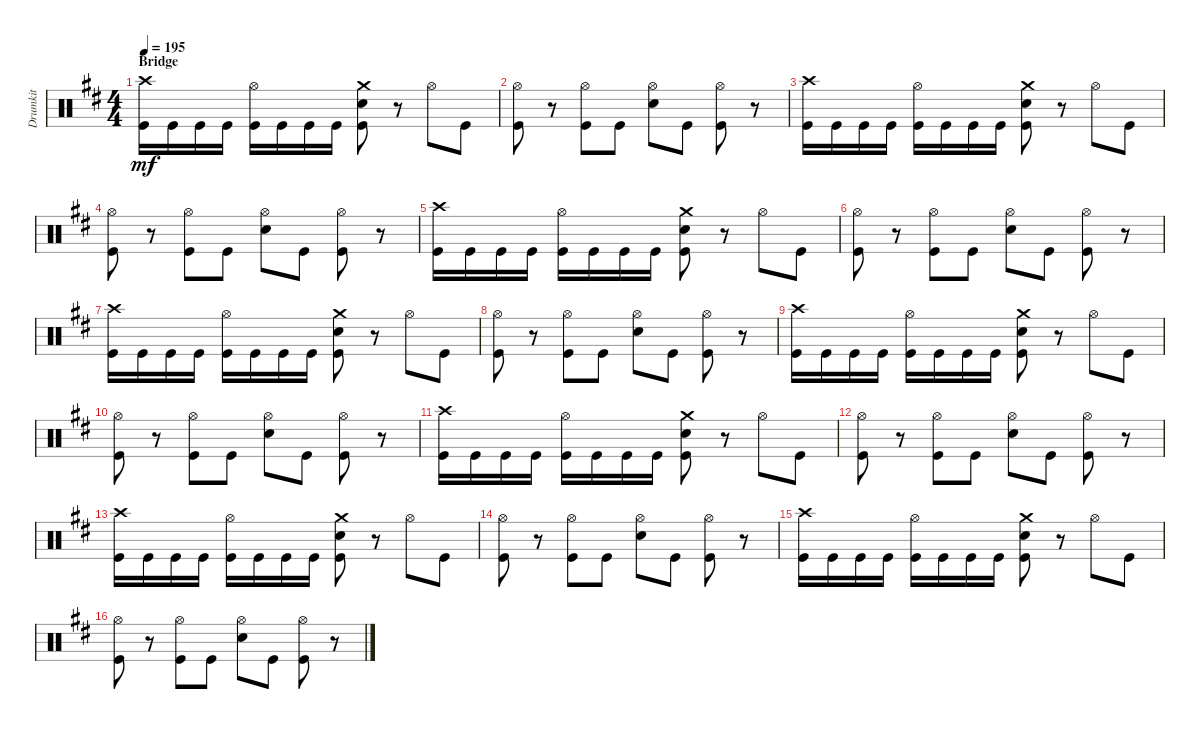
\track ("Drumkit" "Drumkit") {instrument percussion}
\staff {score}
\articulation defaults
\ts (4 4)
\section ("" "Bridge")
\tempo 195
\clef neutral
\ks bminor
("Kick (hit)" "Crash high (hit)").16{dy mf} "Kick (hit)".16 "Kick (hit)".16 "Kick (hit)".16 ("Kick (hit)" "Hi-Hat (open)").16 "Kick (hit)".16 "Kick (hit)".16 "Kick (hit)".16 ("Kick (hit)" "Snare (hit) 2" "Crash medium (hit)").8 r.8 "Hi-Hat (open)".8 "Kick (hit)".8 |
("Kick (hit)" "Hi-Hat (open)").8 r.8 ("Kick (hit)" "Hi-Hat (open)").8 "Kick (hit)".8 ("Snare (hit) 2" "Hi-Hat (open)").8 "Kick (hit)".8 ("Kick (hit)" "Hi-Hat (open)").8 r.8 |
("Kick (hit)" "Crash high (hit)").16 "Kick (hit)".16 "Kick (hit)".16 "Kick (hit)".16 ("Kick (hit)" "Hi-Hat (open)").16 "Kick (hit)".16 "Kick (hit)".16 "Kick (hit)".16 ("Kick (hit)" "Snare (hit) 2" "Crash medium (hit)").8 r.8 "Hi-Hat (open)".8 "Kick (hit)".8 |
("Kick (hit)" "Hi-Hat (open)").8 r.8 ("Kick (hit)" "Hi-Hat (open)").8 "Kick (hit)".8 ("Snare (hit) 2" "Hi-Hat (open)").8 "Kick (hit)".8 ("Kick (hit)" "Hi-Hat (open)").8 r.8 |
("Kick (hit)" "Crash high (hit)").16 "Kick (hit)".16 "Kick (hit)".16 "Kick (hit)".16 ("Kick (hit)" "Hi-Hat (open)").16 "Kick (hit)".16 "Kick (hit)".16 "Kick (hit)".16 ("Kick (hit)" "Snare (hit) 2" "Crash medium (hit)").8 r.8 "Hi-Hat (open)".8 "Kick (hit)".8 |
("Kick (hit)" "Hi-Hat (open)").8 r.8 ("Kick (hit)" "Hi-Hat (open)").8 "Kick (hit)".8 ("Snare (hit) 2" "Hi-Hat (open)").8 "Kick (hit)".8 ("Kick (hit)" "Hi-Hat (open)").8 r.8 |
("Kick (hit)" "Crash high (hit)").16 "Kick (hit)".16 "Kick (hit)".16 "Kick (hit)".16 ("Kick (hit)" "Hi-Hat (open)").16 "Kick (hit)".16 "Kick (hit)".16 "Kick (hit)".16 ("Kick (hit)" "Snare (hit) 2" "Crash medium (hit)").8 r.8 "Hi-Hat (open)".8 "Kick (hit)".8 |
("Kick (hit)" "Hi-Hat (open)").8 r.8 ("Kick (hit)" "Hi-Hat (open)").8 "Kick (hit)".8 ("Snare (hit) 2" "Hi-Hat (open)").8 "Kick (hit)".8 ("Kick (hit)" "Hi-Hat (open)").8 r.8 |
("Kick (hit)" "Crash high (hit)").16 "Kick (hit)".16 "Kick (hit)".16 "Kick (hit)".16 ("Kick (hit)" "Hi-Hat (open)").16 "Kick (hit)".16 "Kick (hit)".16 "Kick (hit)".16 ("Kick (hit)" "Snare (hit) 2" "Crash medium (hit)").8 r.8 "Hi-Hat (open)".8 "Kick (hit)".8 |
("Kick (hit)" "Hi-Hat (open)").8 r.8 ("Kick (hit)" "Hi-Hat (open)").8 "Kick (hit)".8 ("Snare (hit) 2" "Hi-Hat (open)").8 "Kick (hit)".8 ("Kick (hit)" "Hi-Hat (open)").8 r.8 |
("Kick (hit)" "Crash high (hit)").16 "Kick (hit)".16 "Kick (hit)".16 "Kick (hit)".16 ("Kick (hit)" "Hi-Hat (open)").16 "Kick (hit)".16 "Kick (hit)".16 "Kick (hit)".16 ("Kick (hit)" "Snare (hit) 2" "Crash medium (hit)").8 r.8 "Hi-Hat (open)".8 "Kick (hit)".8 |
("Kick (hit)" "Hi-Hat (open)").8 r.8 ("Kick (hit)" "Hi-Hat (open)").8 "Kick (hit)".8 ("Snare (hit) 2" "Hi-Hat (open)").8 "Kick (hit)".8 ("Kick (hit)" "Hi-Hat (open)").8 r.8 |
("Kick (hit)" "Crash high (hit)").16 "Kick (hit)".16 "Kick (hit)".16 "Kick (hit)".16 ("Kick (hit)" "Hi-Hat (open)").16 "Kick (hit)".16 "Kick (hit)".16 "Kick (hit)".16 ("Kick (hit)" "Snare (hit) 2" "Crash medium (hit)").8 r.8 "Hi-Hat (open)".8 "Kick (hit)".8 |
("Kick (hit)" "Hi-Hat (open)").8 r.8 ("Kick (hit)" "Hi-Hat (open)").8 "Kick (hit)".8 ("Snare (hit) 2" "Hi-Hat (open)").8 "Kick (hit)".8 ("Kick (hit)" "Hi-Hat (open)").8 r.8 |
("Kick (hit)" "Crash high (hit)").16 "Kick (hit)".16 "Kick (hit)".16 "Kick (hit)".16 ("Kick (hit)" "Hi-Hat (open)").16 "Kick (hit)".16 "Kick (hit)".16 "Kick (hit)".16 ("Kick (hit)" "Snare (hit) 2" "Crash medium (hit)").8 r.8 "Hi-Hat (open)".8 "Kick (hit)".8 |
("Kick (hit)" "Hi-Hat (open)").8 r.8 ("Kick (hit)" "Hi-Hat (open)").8 "Kick (hit)".8 ("Snare (hit) 2" "Hi-Hat (open)").8 "Kick (hit)".8 ("Kick (hit)" "Hi-Hat (open)").8 r.8
